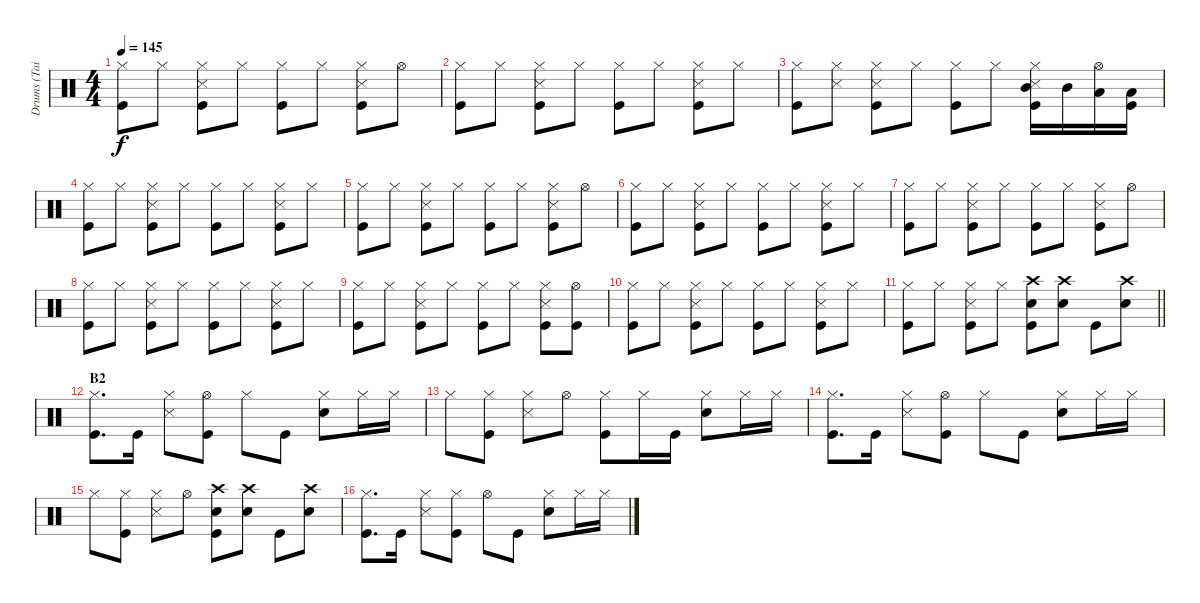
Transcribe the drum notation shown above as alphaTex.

\track ("Drums (Tainaka Ritsu)" "Drums (Tai") {instrument percussion}
\staff {score}
\articulation defaults
\ts (4 4)
\tempo 145
\clef neutral
\ks c
("Hi-Hat (closed)" "Kick (hit)").8{dy f} "Hi-Hat (closed)".8 ("Hi-Hat (closed)" "Snare (side stick) 3" "Kick (hit)").8 "Hi-Hat (closed)".8 ("Hi-Hat (closed)" "Kick (hit)").8 "Hi-Hat (closed)".8 ("Hi-Hat (closed)" "Snare (side stick) 3" "Kick (hit)").8 "Hi-Hat (open)".8 |
("Hi-Hat (closed)" "Kick (hit)").8 "Hi-Hat (closed)".8 ("Hi-Hat (closed)" "Snare (side stick) 3" "Kick (hit)").8 "Hi-Hat (closed)".8 ("Hi-Hat (closed)" "Kick (hit)").8 "Hi-Hat (closed)".8 ("Hi-Hat (closed)" "Snare (side stick) 3" "Kick (hit)").8 "Hi-Hat (closed)".8 |
("Hi-Hat (closed)" "Kick (hit)").8 ("Hi-Hat (closed)" "Snare (side stick) 3").8 ("Hi-Hat (closed)" "Snare (side stick) 3" "Kick (hit)").8 "Hi-Hat (closed)".8 ("Hi-Hat (closed)" "Kick (hit)").8 "Hi-Hat (closed)".8 ("Hi-Hat (closed)" "Snare (side stick) 3" "Mid Tom (hit)" "Kick (hit)").16 "Mid Tom (hit)".16 ("Hi-Hat (open)" "Low Tom (hit)").16 ("Low Tom (hit)" "Kick (hit)").16 |
("Hi-Hat (closed)" "Kick (hit)").8 "Hi-Hat (closed)".8 ("Hi-Hat (closed)" "Snare (side stick) 3" "Kick (hit)").8 "Hi-Hat (closed)".8 ("Hi-Hat (closed)" "Kick (hit)").8 "Hi-Hat (closed)".8 ("Hi-Hat (closed)" "Snare (side stick) 3" "Kick (hit)").8 "Hi-Hat (closed)".8 |
("Hi-Hat (closed)" "Kick (hit)").8 "Hi-Hat (closed)".8 ("Hi-Hat (closed)" "Snare (side stick) 3" "Kick (hit)").8 "Hi-Hat (closed)".8 ("Hi-Hat (closed)" "Kick (hit)").8 "Hi-Hat (closed)".8 ("Hi-Hat (closed)" "Snare (side stick) 3" "Kick (hit)").8 "Hi-Hat (open)".8 |
("Hi-Hat (closed)" "Kick (hit)").8 "Hi-Hat (closed)".8 ("Hi-Hat (closed)" "Snare (side stick) 3" "Kick (hit)").8 "Hi-Hat (closed)".8 ("Hi-Hat (closed)" "Kick (hit)").8 "Hi-Hat (closed)".8 ("Hi-Hat (closed)" "Snare (side stick) 3" "Kick (hit)").8 "Hi-Hat (closed)".8 |
("Hi-Hat (closed)" "Kick (hit)").8 "Hi-Hat (closed)".8 ("Hi-Hat (closed)" "Snare (side stick) 3" "Kick (hit)").8 "Hi-Hat (closed)".8 ("Hi-Hat (closed)" "Kick (hit)").8 "Hi-Hat (closed)".8 ("Hi-Hat (closed)" "Snare (side stick) 3" "Kick (hit)").8 "Hi-Hat (open)".8 |
("Hi-Hat (closed)" "Kick (hit)").8 "Hi-Hat (closed)".8 ("Hi-Hat (closed)" "Snare (side stick) 3" "Kick (hit)").8 "Hi-Hat (closed)".8 ("Hi-Hat (closed)" "Kick (hit)").8 "Hi-Hat (closed)".8 ("Hi-Hat (closed)" "Snare (side stick) 3" "Kick (hit)").8 "Hi-Hat (closed)".8 |
("Hi-Hat (closed)" "Kick (hit)").8 "Hi-Hat (closed)".8 ("Hi-Hat (closed)" "Snare (side stick) 3" "Kick (hit)").8 "Hi-Hat (closed)".8 ("Hi-Hat (closed)" "Kick (hit)").8 "Hi-Hat (closed)".8 ("Hi-Hat (closed)" "Snare (side stick) 3" "Kick (hit)").8 ("Hi-Hat (open)" "Kick (hit)").8 |
("Hi-Hat (closed)" "Kick (hit)").8 "Hi-Hat (closed)".8 ("Hi-Hat (closed)" "Snare (side stick) 3" "Kick (hit)").8 "Hi-Hat (closed)".8 ("Hi-Hat (closed)" "Kick (hit)").8 "Hi-Hat (closed)".8 ("Hi-Hat (closed)" "Snare (side stick) 3" "Kick (hit)").8 "Hi-Hat (closed)".8 |
\barLineRight lightlight
("Hi-Hat (closed)" "Kick (hit)").8 "Hi-Hat (closed)".8 ("Hi-Hat (closed)" "Snare (side stick) 3" "Kick (hit)").8 "Hi-Hat (closed)".8 ("Crash high (hit)" "Snare (hit) 2" "Kick (hit)").8 ("Crash high (hit)" "Snare (hit) 2").8 "Kick (hit)".8 ("Crash high (hit)" "Snare (hit) 2").8 |
\section ("" "B2")
("Hi-Hat (closed)" "Kick (hit)").8{d} "Kick (hit)".16 ("Hi-Hat (closed)" "Snare (side stick) 3").8 ("Hi-Hat (open)" "Kick (hit)").8 "Hi-Hat (closed)".8 "Kick (hit)".8 ("Hi-Hat (closed)" "Snare (hit) 2").8 "Hi-Hat (closed)".16 "Hi-Hat (closed)".16 |
"Hi-Hat (closed)".8 ("Hi-Hat (closed)" "Kick (hit)").8 ("Hi-Hat (closed)" "Snare (side stick) 3").8 "Hi-Hat (open)".8 ("Hi-Hat (closed)" "Kick (hit)").8 "Hi-Hat (closed)".16 "Kick (hit)".16 ("Hi-Hat (closed)" "Snare (hit) 2").8 "Hi-Hat (closed)".16 "Hi-Hat (closed)".16 |
("Hi-Hat (closed)" "Kick (hit)").8{d} "Kick (hit)".16 ("Hi-Hat (closed)" "Snare (side stick) 3").8 ("Hi-Hat (open)" "Kick (hit)").8 "Hi-Hat (closed)".8 "Kick (hit)".8 ("Hi-Hat (closed)" "Snare (hit) 2").8 "Hi-Hat (closed)".16 "Hi-Hat (closed)".16 |
"Hi-Hat (closed)".8 ("Hi-Hat (closed)" "Kick (hit)").8 ("Hi-Hat (closed)" "Snare (side stick) 3").8 "Hi-Hat (open)".8 ("Crash high (hit)" "Snare (hit) 2" "Kick (hit)").8 ("Crash high (hit)" "Snare (hit) 2").8 "Kick (hit)".8 ("Crash high (hit)" "Snare (hit) 2").8 |
("Hi-Hat (closed)" "Kick (hit)").8{d} "Kick (hit)".16 ("Hi-Hat (closed)" "Snare (side stick) 3").8 ("Hi-Hat (closed)" "Kick (hit)").8 "Hi-Hat (open)".8 "Kick (hit)".8 ("Hi-Hat (closed)" "Snare (hit) 2").8 "Hi-Hat (closed)".16 "Hi-Hat (closed)".16
